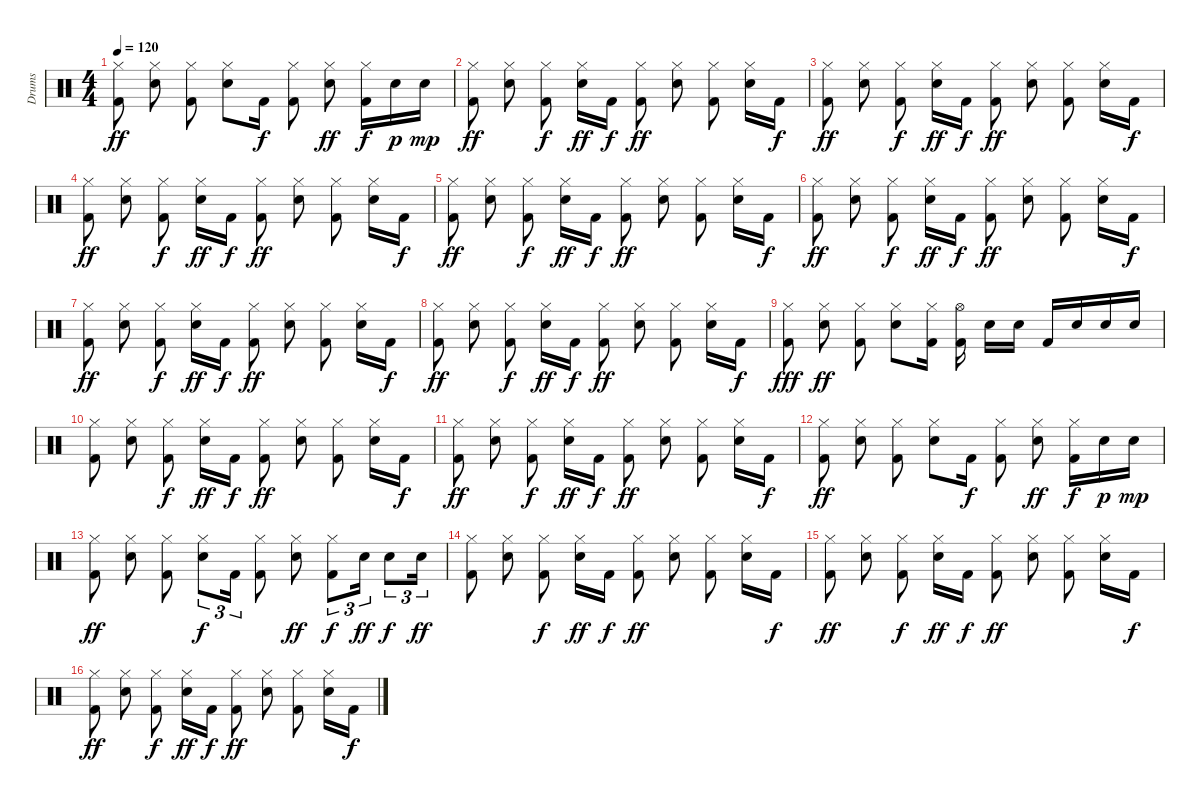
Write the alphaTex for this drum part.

\track ("Drums" "Drums") {instrument percussion}
\staff {score}
\articulation defaults
\ts (4 4)
\tempo 120
\clef neutral
\ks c
("Kick (hit) 2" "Hi-Hat (closed)").8{dy ff beam split} ("Snare (hit) 2" "Hi-Hat (closed)").8 ("Kick (hit) 2" "Hi-Hat (closed)").8{beam split} ("Snare (hit) 2" "Hi-Hat (closed)").8{beam merge} "Kick (hit) 2".16{dy f beam split} ("Kick (hit) 2" "Hi-Hat (closed)").8{beam split} ("Snare (hit) 2" "Hi-Hat (closed)").8{dy ff} ("Kick (hit) 2" "Hi-Hat (closed)").16{dy f} "Snare (hit) 2".16{dy p} "Snare (hit) 2".16{dy mp} |
("Kick (hit) 2" "Hi-Hat (closed)").8{dy ff beam split} ("Snare (hit) 2" "Hi-Hat (closed)").8 ("Kick (hit) 2" "Hi-Hat (closed)").8{dy f beam split} ("Snare (hit) 2" "Hi-Hat (closed)").16{dy ff} "Kick (hit) 2".16{dy f} ("Kick (hit) 2" "Hi-Hat (closed)").8{dy ff beam split} ("Snare (hit) 2" "Hi-Hat (closed)").8 ("Kick (hit) 2" "Hi-Hat (closed)").8{beam split} ("Snare (hit) 2" "Hi-Hat (closed)").16 "Kick (hit) 2".16{dy f} |
("Kick (hit) 2" "Hi-Hat (closed)").8{dy ff beam split} ("Snare (hit) 2" "Hi-Hat (closed)").8 ("Kick (hit) 2" "Hi-Hat (closed)").8{dy f beam split} ("Snare (hit) 2" "Hi-Hat (closed)").16{dy ff} "Kick (hit) 2".16{dy f} ("Kick (hit) 2" "Hi-Hat (closed)").8{dy ff beam split} ("Snare (hit) 2" "Hi-Hat (closed)").8 ("Kick (hit) 2" "Hi-Hat (closed)").8{beam split} ("Snare (hit) 2" "Hi-Hat (closed)").16 "Kick (hit) 2".16{dy f} |
("Kick (hit) 2" "Hi-Hat (closed)").8{dy ff beam split} ("Snare (hit) 2" "Hi-Hat (closed)").8 ("Kick (hit) 2" "Hi-Hat (closed)").8{dy f beam split} ("Snare (hit) 2" "Hi-Hat (closed)").16{dy ff} "Kick (hit) 2".16{dy f} ("Kick (hit) 2" "Hi-Hat (closed)").8{dy ff beam split} ("Snare (hit) 2" "Hi-Hat (closed)").8 ("Kick (hit) 2" "Hi-Hat (closed)").8{beam split} ("Snare (hit) 2" "Hi-Hat (closed)").16 "Kick (hit) 2".16{dy f} |
("Kick (hit) 2" "Hi-Hat (closed)").8{dy ff beam split} ("Snare (hit) 2" "Hi-Hat (closed)").8 ("Kick (hit) 2" "Hi-Hat (closed)").8{dy f beam split} ("Snare (hit) 2" "Hi-Hat (closed)").16{dy ff} "Kick (hit) 2".16{dy f} ("Kick (hit) 2" "Hi-Hat (closed)").8{dy ff beam split} ("Snare (hit) 2" "Hi-Hat (closed)").8 ("Kick (hit) 2" "Hi-Hat (closed)").8{beam split} ("Snare (hit) 2" "Hi-Hat (closed)").16 "Kick (hit) 2".16{dy f} |
("Kick (hit) 2" "Hi-Hat (closed)").8{dy ff beam split} ("Snare (hit) 2" "Hi-Hat (closed)").8 ("Kick (hit) 2" "Hi-Hat (closed)").8{dy f beam split} ("Snare (hit) 2" "Hi-Hat (closed)").16{dy ff} "Kick (hit) 2".16{dy f} ("Kick (hit) 2" "Hi-Hat (closed)").8{dy ff beam split} ("Snare (hit) 2" "Hi-Hat (closed)").8 ("Kick (hit) 2" "Hi-Hat (closed)").8{beam split} ("Snare (hit) 2" "Hi-Hat (closed)").16 "Kick (hit) 2".16{dy f} |
("Kick (hit) 2" "Hi-Hat (closed)").8{dy ff beam split} ("Snare (hit) 2" "Hi-Hat (closed)").8 ("Kick (hit) 2" "Hi-Hat (closed)").8{dy f beam split} ("Snare (hit) 2" "Hi-Hat (closed)").16{dy ff} "Kick (hit) 2".16{dy f} ("Kick (hit) 2" "Hi-Hat (closed)").8{dy ff beam split} ("Snare (hit) 2" "Hi-Hat (closed)").8 ("Kick (hit) 2" "Hi-Hat (closed)").8{beam split} ("Snare (hit) 2" "Hi-Hat (closed)").16 "Kick (hit) 2".16{dy f} |
("Kick (hit) 2" "Hi-Hat (closed)").8{dy ff beam split} ("Snare (hit) 2" "Hi-Hat (closed)").8 ("Kick (hit) 2" "Hi-Hat (closed)").8{dy f beam split} ("Snare (hit) 2" "Hi-Hat (closed)").16{dy ff} "Kick (hit) 2".16{dy f} ("Kick (hit) 2" "Hi-Hat (closed)").8{dy ff beam split} ("Snare (hit) 2" "Hi-Hat (closed)").8 ("Kick (hit) 2" "Hi-Hat (closed)").8{beam split} ("Snare (hit) 2" "Hi-Hat (closed)").16 "Kick (hit) 2".16{dy f} |
("Kick (hit) 2" "Hi-Hat (closed)").8{dy fff beam split} ("Snare (hit) 2" "Hi-Hat (closed)").8{dy ff} ("Kick (hit) 2" "Hi-Hat (closed)").8{beam split} ("Snare (hit) 2" "Hi-Hat (closed)").8{beam merge} ("Kick (hit) 2" "Hi-Hat (closed)").16{beam split} ("Kick (hit) 2" "Hi-Hat (open)").16{beam split} "Snare (hit) 2".16 "Snare (hit) 2".16 "Kick (hit) 2".16 "Snare (hit) 2".16 "Snare (hit) 2".16 "Snare (hit) 2".16 |
("Kick (hit) 2" "Hi-Hat (closed)").8{beam split} ("Snare (hit) 2" "Hi-Hat (closed)").8 ("Kick (hit) 2" "Hi-Hat (closed)").8{dy f beam split} ("Snare (hit) 2" "Hi-Hat (closed)").16{dy ff} "Kick (hit) 2".16{dy f} ("Kick (hit) 2" "Hi-Hat (closed)").8{dy ff beam split} ("Snare (hit) 2" "Hi-Hat (closed)").8 ("Kick (hit) 2" "Hi-Hat (closed)").8{beam split} ("Snare (hit) 2" "Hi-Hat (closed)").16 "Kick (hit) 2".16{dy f} |
("Kick (hit) 2" "Hi-Hat (closed)").8{dy ff beam split} ("Snare (hit) 2" "Hi-Hat (closed)").8 ("Kick (hit) 2" "Hi-Hat (closed)").8{dy f beam split} ("Snare (hit) 2" "Hi-Hat (closed)").16{dy ff} "Kick (hit) 2".16{dy f} ("Kick (hit) 2" "Hi-Hat (closed)").8{dy ff beam split} ("Snare (hit) 2" "Hi-Hat (closed)").8 ("Kick (hit) 2" "Hi-Hat (closed)").8{beam split} ("Snare (hit) 2" "Hi-Hat (closed)").16 "Kick (hit) 2".16{dy f} |
("Kick (hit) 2" "Hi-Hat (closed)").8{dy ff beam split} ("Snare (hit) 2" "Hi-Hat (closed)").8 ("Kick (hit) 2" "Hi-Hat (closed)").8{beam split} ("Snare (hit) 2" "Hi-Hat (closed)").8{beam merge} "Kick (hit) 2".16{dy f beam split} ("Kick (hit) 2" "Hi-Hat (closed)").8{beam split} ("Snare (hit) 2" "Hi-Hat (closed)").8{dy ff} ("Kick (hit) 2" "Hi-Hat (closed)").16{dy f} "Snare (hit) 2".16{dy p} "Snare (hit) 2".16{dy mp} |
("Kick (hit) 2" "Hi-Hat (closed)").8{dy ff beam split} ("Snare (hit) 2" "Hi-Hat (closed)").8 ("Kick (hit) 2" "Hi-Hat (closed)").8{beam split} ("Snare (hit) 2" "Hi-Hat (closed)").8{tu (3 2) dy f} "Kick (hit) 2".16{tu (3 2)} ("Kick (hit) 2" "Hi-Hat (closed)").8{beam split} ("Snare (hit) 2" "Hi-Hat (closed)").8{dy ff} ("Kick (hit) 2" "Hi-Hat (closed)").8{tu (3 2) dy f beam merge} "Snare (hit) 2".16{tu (3 2) dy ff} "Snare (hit) 2".8{tu (3 2) dy f} "Snare (hit) 2".16{tu (3 2) dy ff} |
("Kick (hit) 2" "Hi-Hat (closed)").8{beam split} ("Snare (hit) 2" "Hi-Hat (closed)").8 ("Kick (hit) 2" "Hi-Hat (closed)").8{dy f beam split} ("Snare (hit) 2" "Hi-Hat (closed)").16{dy ff} "Kick (hit) 2".16{dy f} ("Kick (hit) 2" "Hi-Hat (closed)").8{dy ff beam split} ("Snare (hit) 2" "Hi-Hat (closed)").8 ("Kick (hit) 2" "Hi-Hat (closed)").8{beam split} ("Snare (hit) 2" "Hi-Hat (closed)").16 "Kick (hit) 2".16{dy f} |
("Kick (hit) 2" "Hi-Hat (closed)").8{dy ff beam split} ("Snare (hit) 2" "Hi-Hat (closed)").8 ("Kick (hit) 2" "Hi-Hat (closed)").8{dy f beam split} ("Snare (hit) 2" "Hi-Hat (closed)").16{dy ff} "Kick (hit) 2".16{dy f} ("Kick (hit) 2" "Hi-Hat (closed)").8{dy ff beam split} ("Snare (hit) 2" "Hi-Hat (closed)").8 ("Kick (hit) 2" "Hi-Hat (closed)").8{beam split} ("Snare (hit) 2" "Hi-Hat (closed)").16 "Kick (hit) 2".16{dy f} |
("Kick (hit) 2" "Hi-Hat (closed)").8{dy ff beam split} ("Snare (hit) 2" "Hi-Hat (closed)").8 ("Kick (hit) 2" "Hi-Hat (closed)").8{dy f beam split} ("Snare (hit) 2" "Hi-Hat (closed)").16{dy ff} "Kick (hit) 2".16{dy f} ("Kick (hit) 2" "Hi-Hat (closed)").8{dy ff beam split} ("Snare (hit) 2" "Hi-Hat (closed)").8 ("Kick (hit) 2" "Hi-Hat (closed)").8{beam split} ("Snare (hit) 2" "Hi-Hat (closed)").16 "Kick (hit) 2".16{dy f}
